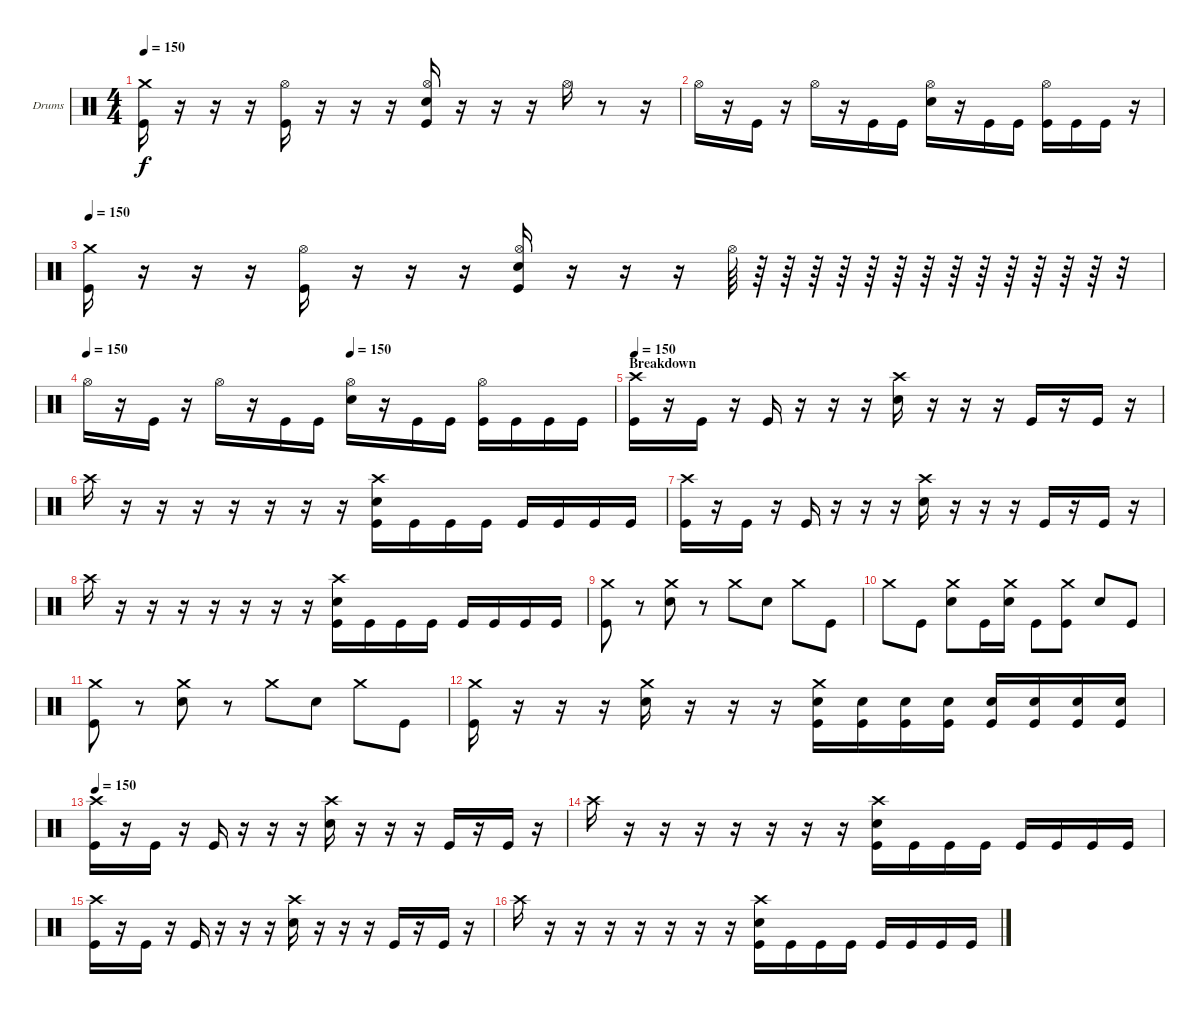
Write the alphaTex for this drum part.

\bracketExtendMode groupsimilarinstruments
\firstSystemTrackNameOrientation horizontal
\otherSystemsTrackNameOrientation horizontal
\track ("Cory La Quay" "Drums") {instrument percussion}
\staff {score}
\articulation defaults
\ts (4 4)
\tempo 150
\clef neutral
\ks c
("Crash medium (hit)" "Kick (hit)").16{dy f} r.16 r.16 r.16 ("Hi-Hat (open)" "Kick (hit)").16 r.16 r.16 r.16 ("Hi-Hat (open)" "Snare (hit) 2" "Kick (hit)").16 r.16 r.16 r.16 "Hi-Hat (open)".16 r.8 r.16 |
"Hi-Hat (open)".16 r.16 "Kick (hit)".16 r.16 "Hi-Hat (open)".16 r.16 "Kick (hit)".16 "Kick (hit)".16 ("Hi-Hat (open)" "Snare (hit) 2").16 r.16 "Kick (hit)".16 "Kick (hit)".16 ("Hi-Hat (open)" "Kick (hit)").16 "Kick (hit)".16 "Kick (hit)".16 r.16 |
\tempo 150
("Crash medium (hit)" "Kick (hit)").16 r.16 r.16 r.16 ("Hi-Hat (open)" "Kick (hit)").16 r.16 r.16 r.16 ("Hi-Hat (open)" "Snare (hit) 2" "Kick (hit)").16 r.16 r.16 r.16 "Hi-Hat (open)".64 r.64 r.64 r.64 r.64 r.64 r.64 r.64 r.64 r.64 r.64 r.64 r.64 r.64 r.32 |
\tempo 150
\tempo (150 0.5)
"Hi-Hat (open)".16 r.16 "Kick (hit)".16 r.16 "Hi-Hat (open)".16 r.16 "Kick (hit)".16 "Kick (hit)".16 ("Hi-Hat (open)" "Snare (hit) 2").16 r.16 "Kick (hit)".16 "Kick (hit)".16 ("Hi-Hat (open)" "Kick (hit)").16 "Kick (hit)".16 "Kick (hit)".16 "Kick (hit)".16 |
\section ("" "Breakdown")
\tempo 150
("Crash high (hit)" "Kick (hit)").16 r.16 "Kick (hit)".16 r.16 "Kick (hit)".16 r.16 r.16 r.16 ("Crash high (hit)" "Snare (hit) 2").16 r.16 r.16 r.16 "Kick (hit)".16 r.16 "Kick (hit)".16 r.16 |
"Crash high (hit)".16 r.16 r.16 r.16 r.16 r.16 r.16 r.16 ("Crash high (hit)" "Snare (hit) 2" "Kick (hit)").16 "Kick (hit)".16 "Kick (hit)".16 "Kick (hit)".16 "Kick (hit)".16 "Kick (hit)".16 "Kick (hit)".16 "Kick (hit)".16 |
("Crash high (hit)" "Kick (hit)").16 r.16 "Kick (hit)".16 r.16 "Kick (hit)".16 r.16 r.16 r.16 ("Crash high (hit)" "Snare (hit) 2").16 r.16 r.16 r.16 "Kick (hit)".16 r.16 "Kick (hit)".16 r.16 |
"Crash high (hit)".16 r.16 r.16 r.16 r.16 r.16 r.16 r.16 ("Crash high (hit)" "Snare (hit) 2" "Kick (hit)").16 "Kick (hit)".16 "Kick (hit)".16 "Kick (hit)".16 "Kick (hit)".16 "Kick (hit)".16 "Kick (hit)".16 "Kick (hit)".16 |
("Kick (hit)" "Crash medium (hit)").8 r.8 ("Snare (hit) 2" "Crash medium (hit)").8 r.8 "Crash medium (hit)".8 "Snare (hit) 2".8 "Crash medium (hit)".8 "Kick (hit)".8 |
"Crash medium (hit)".8 "Kick (hit)".8 ("Crash medium (hit)" "Snare (hit) 2").8 "Kick (hit)".16 ("Crash medium (hit)" "Snare (hit) 2").16 "Kick (hit)".8 ("Crash medium (hit)" "Kick (hit)").8 "Snare (hit) 2".8 "Kick (hit)".8 |
("Kick (hit)" "Crash medium (hit)").8 r.8 ("Snare (hit) 2" "Crash medium (hit)").8 r.8 "Crash medium (hit)".8 "Snare (hit) 2".8 "Crash medium (hit)".8 "Kick (hit)".8 |
("Kick (hit)" "Crash medium (hit)").16 r.16 r.16 r.16 ("Snare (hit) 2" "Crash medium (hit)").16 r.16 r.16 r.16 ("Snare (hit) 2" "Kick (hit)" "Crash medium (hit)").16 ("Snare (hit) 2" "Kick (hit)").16 ("Snare (hit) 2" "Kick (hit)").16 ("Snare (hit) 2" "Kick (hit)").16 ("Snare (hit) 2" "Kick (hit)").16 ("Snare (hit) 2" "Kick (hit)").16 ("Snare (hit) 2" "Kick (hit)").16 ("Snare (hit) 2" "Kick (hit)").16 |
\tempo 150
("Crash high (hit)" "Kick (hit)").16 r.16 "Kick (hit)".16 r.16 "Kick (hit)".16 r.16 r.16 r.16 ("Crash high (hit)" "Snare (hit) 2").16 r.16 r.16 r.16 "Kick (hit)".16 r.16 "Kick (hit)".16 r.16 |
"Crash high (hit)".16 r.16 r.16 r.16 r.16 r.16 r.16 r.16 ("Crash high (hit)" "Snare (hit) 2" "Kick (hit)").16 "Kick (hit)".16 "Kick (hit)".16 "Kick (hit)".16 "Kick (hit)".16 "Kick (hit)".16 "Kick (hit)".16 "Kick (hit)".16 |
("Crash high (hit)" "Kick (hit)").16 r.16 "Kick (hit)".16 r.16 "Kick (hit)".16 r.16 r.16 r.16 ("Crash high (hit)" "Snare (hit) 2").16 r.16 r.16 r.16 "Kick (hit)".16 r.16 "Kick (hit)".16 r.16 |
"Crash high (hit)".16 r.16 r.16 r.16 r.16 r.16 r.16 r.16 ("Crash high (hit)" "Snare (hit) 2" "Kick (hit)").16 "Kick (hit)".16 "Kick (hit)".16 "Kick (hit)".16 "Kick (hit)".16 "Kick (hit)".16 "Kick (hit)".16 "Kick (hit)".16
